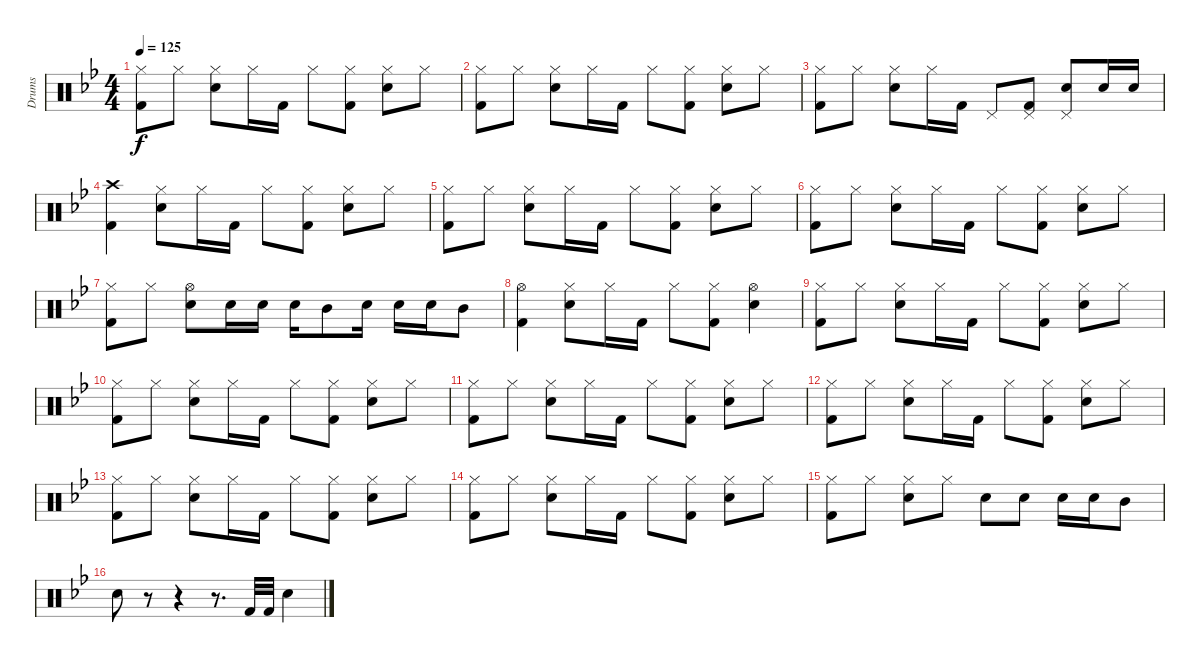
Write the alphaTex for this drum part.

\track ("Drums" "Drums") {instrument percussion}
\staff {score}
\articulation defaults
\ts (4 4)
\tempo 125
\clef neutral
\ks bb
("Hi-Hat (closed)" "Kick (hit) 2").8{dy f} "Hi-Hat (closed)".8 ("Hi-Hat (closed)" "Electric Snare (hit)").8 "Hi-Hat (closed)".16 "Kick (hit) 2".16 "Hi-Hat (closed)".8 ("Hi-Hat (closed)" "Kick (hit) 2").8 ("Hi-Hat (closed)" "Electric Snare (hit)").8 "Hi-Hat (closed)".8 |
("Hi-Hat (closed)" "Kick (hit) 2").8 "Hi-Hat (closed)".8 ("Hi-Hat (closed)" "Electric Snare (hit)").8 "Hi-Hat (closed)".16 "Kick (hit) 2".16 "Hi-Hat (closed)".8 ("Hi-Hat (closed)" "Kick (hit) 2").8 ("Hi-Hat (closed)" "Electric Snare (hit)").8 "Hi-Hat (closed)".8 |
("Hi-Hat (closed)" "Kick (hit) 2").8 "Hi-Hat (closed)".8 ("Hi-Hat (closed)" "Electric Snare (hit)").8 "Hi-Hat (closed)".16 "Kick (hit) 2".16 "Pedal Hi-Hat (hit)".8 ("Pedal Hi-Hat (hit)" "Kick (hit) 2").8 ("Pedal Hi-Hat (hit)" "Electric Snare (hit)").8 "Electric Snare (hit)".16 "Electric Snare (hit)".16 |
("Crash high (hit)" "Kick (hit) 2").4 ("Hi-Hat (closed)" "Electric Snare (hit)").8 "Hi-Hat (closed)".16 "Kick (hit) 2".16 "Hi-Hat (closed)".8 ("Hi-Hat (closed)" "Kick (hit) 2").8 ("Hi-Hat (closed)" "Electric Snare (hit)").8 "Hi-Hat (closed)".8 |
("Hi-Hat (closed)" "Kick (hit) 2").8 "Hi-Hat (closed)".8 ("Hi-Hat (closed)" "Electric Snare (hit)").8 "Hi-Hat (closed)".16 "Kick (hit) 2".16 "Hi-Hat (closed)".8 ("Hi-Hat (closed)" "Kick (hit) 2").8 ("Hi-Hat (closed)" "Electric Snare (hit)").8 "Hi-Hat (closed)".8 |
("Hi-Hat (closed)" "Kick (hit) 2").8 "Hi-Hat (closed)".8 ("Hi-Hat (closed)" "Electric Snare (hit)").8 "Hi-Hat (closed)".16 "Kick (hit) 2".16 "Hi-Hat (closed)".8 ("Hi-Hat (closed)" "Kick (hit) 2").8 ("Hi-Hat (closed)" "Electric Snare (hit)").8 "Hi-Hat (closed)".8 |
("Hi-Hat (closed)" "Kick (hit) 2").8 "Hi-Hat (closed)".8 ("Hi-Hat (open)" "Electric Snare (hit)").8 "Electric Snare (hit)".16 "Electric Snare (hit)".16 "Electric Snare (hit)".16 "Mid Tom (hit)".8 "Electric Snare (hit)".16 "Electric Snare (hit)".16 "Electric Snare (hit)".16 "Mid Tom (hit)".8 |
("Hi-Hat (open)" "Kick (hit) 2").4 ("Hi-Hat (closed)" "Electric Snare (hit)").8 "Hi-Hat (closed)".16 "Kick (hit) 2".16 "Hi-Hat (closed)".8 ("Hi-Hat (closed)" "Kick (hit) 2").8 ("Hi-Hat (open)" "Electric Snare (hit)").4 |
("Hi-Hat (closed)" "Kick (hit) 2").8 "Hi-Hat (closed)".8 ("Hi-Hat (closed)" "Electric Snare (hit)").8 "Hi-Hat (closed)".16 "Kick (hit) 2".16 "Hi-Hat (closed)".8 ("Hi-Hat (closed)" "Kick (hit) 2").8 ("Hi-Hat (closed)" "Electric Snare (hit)").8 "Hi-Hat (closed)".8 |
("Hi-Hat (closed)" "Kick (hit) 2").8 "Hi-Hat (closed)".8 ("Hi-Hat (closed)" "Electric Snare (hit)").8 "Hi-Hat (closed)".16 "Kick (hit) 2".16 "Hi-Hat (closed)".8 ("Hi-Hat (closed)" "Kick (hit) 2").8 ("Hi-Hat (closed)" "Electric Snare (hit)").8 "Hi-Hat (closed)".8 |
("Hi-Hat (closed)" "Kick (hit) 2").8 "Hi-Hat (closed)".8 ("Hi-Hat (closed)" "Electric Snare (hit)").8 "Hi-Hat (closed)".16 "Kick (hit) 2".16 "Hi-Hat (closed)".8 ("Hi-Hat (closed)" "Kick (hit) 2").8 ("Hi-Hat (closed)" "Electric Snare (hit)").8 "Hi-Hat (closed)".8 |
("Hi-Hat (closed)" "Kick (hit) 2").8 "Hi-Hat (closed)".8 ("Hi-Hat (closed)" "Electric Snare (hit)").8 "Hi-Hat (closed)".16 "Kick (hit) 2".16 "Hi-Hat (closed)".8 ("Hi-Hat (closed)" "Kick (hit) 2").8 ("Hi-Hat (closed)" "Electric Snare (hit)").8 "Hi-Hat (closed)".8 |
("Hi-Hat (closed)" "Kick (hit) 2").8 "Hi-Hat (closed)".8 ("Hi-Hat (closed)" "Electric Snare (hit)").8 "Hi-Hat (closed)".16 "Kick (hit) 2".16 "Hi-Hat (closed)".8 ("Hi-Hat (closed)" "Kick (hit) 2").8 ("Hi-Hat (closed)" "Electric Snare (hit)").8 "Hi-Hat (closed)".8 |
("Hi-Hat (closed)" "Kick (hit) 2").8 "Hi-Hat (closed)".8 ("Hi-Hat (closed)" "Electric Snare (hit)").8 "Hi-Hat (closed)".16 "Kick (hit) 2".16 "Hi-Hat (closed)".8 ("Hi-Hat (closed)" "Kick (hit) 2").8 ("Hi-Hat (closed)" "Electric Snare (hit)").8 "Hi-Hat (closed)".8 |
("Hi-Hat (closed)" "Kick (hit) 2").8 "Hi-Hat (closed)".8 ("Hi-Hat (closed)" "Electric Snare (hit)").8 "Hi-Hat (closed)".8 "Electric Snare (hit)".8 "Electric Snare (hit)".8 "Electric Snare (hit)".16 "Electric Snare (hit)".16 "Mid Tom (hit)".8 |
"Electric Snare (hit)".8 r.8 r.4 r.8{d} "Kick (hit) 2".32 "Kick (hit) 2".32 "Electric Snare (hit)".4
